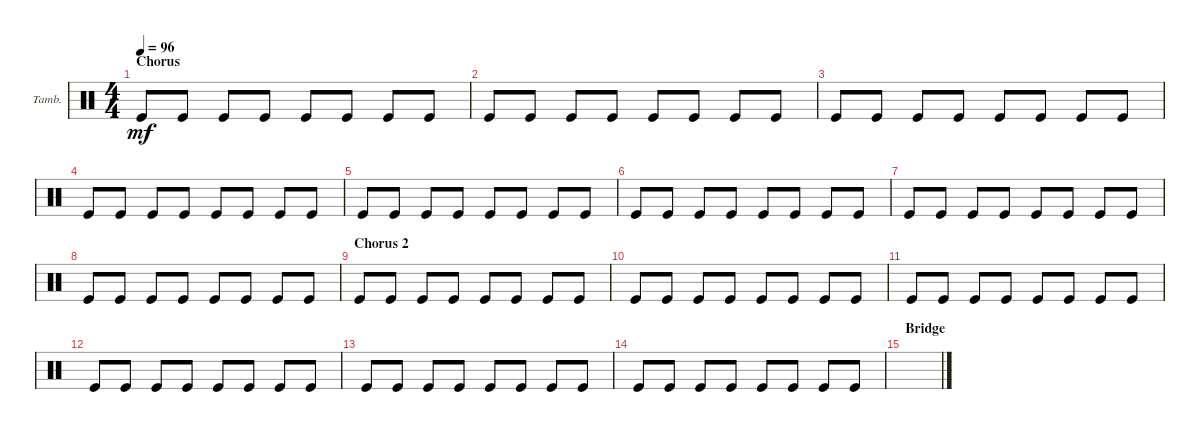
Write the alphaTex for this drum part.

\defaultSystemsLayout 4
\bracketExtendMode groupsimilarinstruments
\firstSystemTrackNameOrientation horizontal
\otherSystemsTrackNameOrientation horizontal
\track ("Tambourine" "Tamb.") {instrument percussion}
\staff {score}
\articulation defaults
\ts (4 4)
\section ("" "Chorus")
\tempo 96
\clef neutral
\ks c "Kick (hit)".8{dy mf} "Kick (hit)".8 "Kick (hit)".8 "Kick (hit)".8 "Kick (hit)".8 "Kick (hit)".8 "Kick (hit)".8 "Kick (hit)".8
|
"Kick (hit)".8 "Kick (hit)".8 "Kick (hit)".8 "Kick (hit)".8 "Kick (hit)".8 "Kick (hit)".8 "Kick (hit)".8 "Kick (hit)".8 |
"Kick (hit)".8 "Kick (hit)".8 "Kick (hit)".8 "Kick (hit)".8 "Kick (hit)".8 "Kick (hit)".8 "Kick (hit)".8 "Kick (hit)".8 |
"Kick (hit)".8 "Kick (hit)".8 "Kick (hit)".8 "Kick (hit)".8 "Kick (hit)".8 "Kick (hit)".8 "Kick (hit)".8 "Kick (hit)".8 |
"Kick (hit)".8 "Kick (hit)".8 "Kick (hit)".8 "Kick (hit)".8 "Kick (hit)".8 "Kick (hit)".8 "Kick (hit)".8 "Kick (hit)".8 |
"Kick (hit)".8 "Kick (hit)".8 "Kick (hit)".8 "Kick (hit)".8 "Kick (hit)".8 "Kick (hit)".8 "Kick (hit)".8 "Kick (hit)".8 |
"Kick (hit)".8 "Kick (hit)".8 "Kick (hit)".8 "Kick (hit)".8 "Kick (hit)".8 "Kick (hit)".8 "Kick (hit)".8 "Kick (hit)".8 |
"Kick (hit)".8 "Kick (hit)".8 "Kick (hit)".8 "Kick (hit)".8 "Kick (hit)".8 "Kick (hit)".8 "Kick (hit)".8 "Kick (hit)".8 |
\section ("" "Chorus 2")
"Kick (hit)".8 "Kick (hit)".8 "Kick (hit)".8 "Kick (hit)".8 "Kick (hit)".8 "Kick (hit)".8 "Kick (hit)".8 "Kick (hit)".8 |
"Kick (hit)".8 "Kick (hit)".8 "Kick (hit)".8 "Kick (hit)".8 "Kick (hit)".8 "Kick (hit)".8 "Kick (hit)".8 "Kick (hit)".8 |
"Kick (hit)".8 "Kick (hit)".8 "Kick (hit)".8 "Kick (hit)".8 "Kick (hit)".8 "Kick (hit)".8 "Kick (hit)".8 "Kick (hit)".8 |
"Kick (hit)".8 "Kick (hit)".8 "Kick (hit)".8 "Kick (hit)".8 "Kick (hit)".8 "Kick (hit)".8 "Kick (hit)".8 "Kick (hit)".8 |
"Kick (hit)".8 "Kick (hit)".8 "Kick (hit)".8 "Kick (hit)".8 "Kick (hit)".8 "Kick (hit)".8 "Kick (hit)".8 "Kick (hit)".8 |
"Kick (hit)".8 "Kick (hit)".8 "Kick (hit)".8 "Kick (hit)".8 "Kick (hit)".8 "Kick (hit)".8 "Kick (hit)".8 "Kick (hit)".8 |
\section ("" "Bridge")
